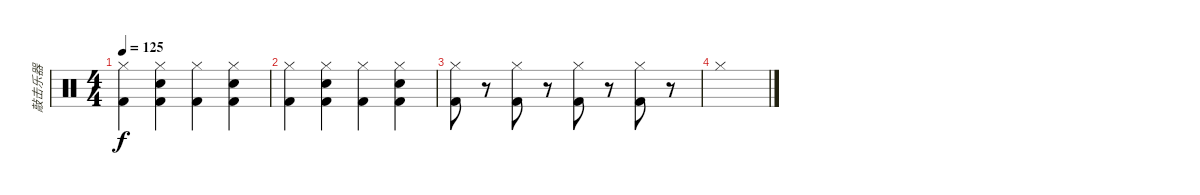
\track ("敲击乐器" "敲击乐器") {solo instrument percussion}
\staff {score}
\articulation defaults
\ts (4 4)
\tempo 125
\clef neutral
\ks c
("Hi-Hat (closed)" "Kick (hit) 2").4{dy f} ("Kick (hit) 2" "Hand Clap (hit)" "Hi-Hat (closed)").4 ("Kick (hit) 2" "Hi-Hat (closed)").4 ("Kick (hit) 2" "Hi-Hat (closed)" "Hand Clap (hit)").4 |
("Hi-Hat (closed)" "Kick (hit) 2").4 ("Kick (hit) 2" "Hand Clap (hit)" "Hi-Hat (closed)").4 ("Kick (hit) 2" "Hi-Hat (closed)").4 ("Kick (hit) 2" "Hi-Hat (closed)" "Hand Clap (hit)").4 |
("Hi-Hat (closed)" "Kick (hit) 2").8 r.8 ("Kick (hit) 2" "Hi-Hat (closed)").8 r.8 ("Kick (hit) 2" "Hi-Hat (closed)").8 r.8 ("Hi-Hat (closed)" "Kick (hit) 2").8 r.8 |
"Hi-Hat (closed)".1
